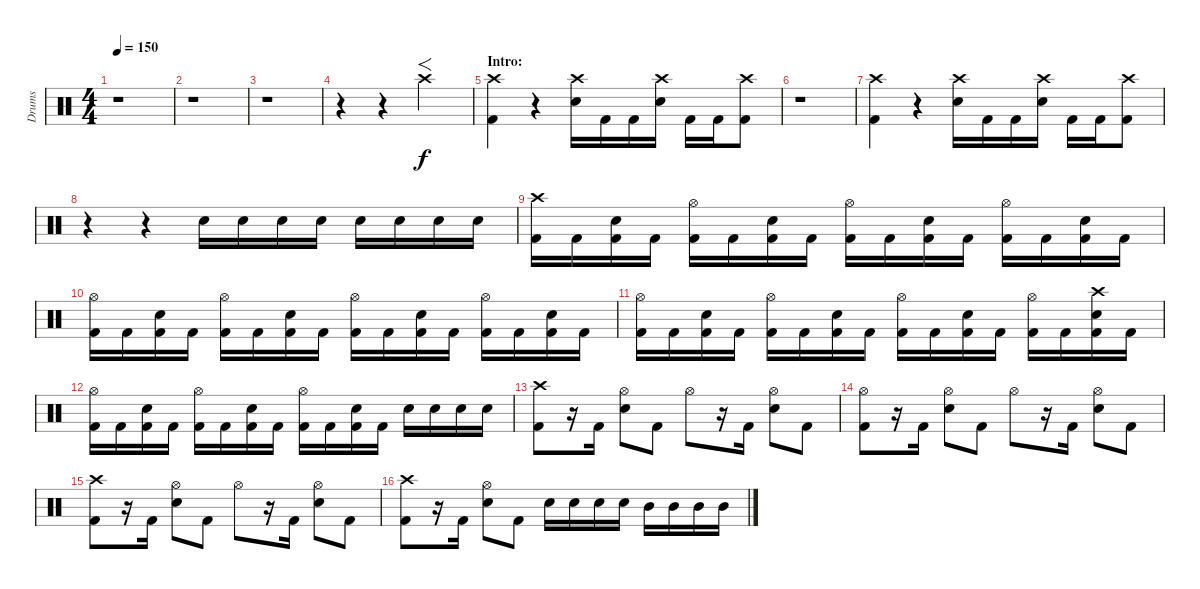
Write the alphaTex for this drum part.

\track ("Drums" "Drums") {instrument percussion}
\staff {score}
\articulation defaults
\ts (4 4)
\tempo 150
\clef neutral
\ks c
r.1{dy f} |
r.1 |
r.1 |
r.4 r.4 "Crash high (hit)".2{f} |
\section ("" "Intro:")
("Crash high (hit)" "Kick (hit) 2").4 r.4 ("Crash high (hit)" "Electric Snare (hit)").16 "Kick (hit) 2".16 "Kick (hit) 2".16 ("Crash high (hit)" "Electric Snare (hit)").16 "Kick (hit) 2".16 "Kick (hit) 2".16 ("Crash high (hit)" "Kick (hit) 2").8 |
r.1 |
("Crash high (hit)" "Kick (hit) 2").4 r.4 ("Crash high (hit)" "Electric Snare (hit)").16 "Kick (hit) 2".16 "Kick (hit) 2".16 ("Crash high (hit)" "Electric Snare (hit)").16 "Kick (hit) 2".16 "Kick (hit) 2".16 ("Crash high (hit)" "Kick (hit) 2").8 |
r.4 r.4 "Electric Snare (hit)".16 "Electric Snare (hit)".16 "Electric Snare (hit)".16 "Electric Snare (hit)".16 "Electric Snare (hit)".16 "Electric Snare (hit)".16 "Electric Snare (hit)".16 "Electric Snare (hit)".16 |
("Crash high (hit)" "Kick (hit) 2").16 "Kick (hit) 2".16 ("Electric Snare (hit)" "Kick (hit) 2").16 "Kick (hit) 2".16 ("Hi-Hat (open)" "Kick (hit) 2").16 "Kick (hit) 2".16 ("Electric Snare (hit)" "Kick (hit) 2").16 "Kick (hit) 2".16 ("Hi-Hat (open)" "Kick (hit) 2").16 "Kick (hit) 2".16 ("Electric Snare (hit)" "Kick (hit) 2").16 "Kick (hit) 2".16 ("Hi-Hat (open)" "Kick (hit) 2").16 "Kick (hit) 2".16 ("Electric Snare (hit)" "Kick (hit) 2").16 "Kick (hit) 2".16 |
("Hi-Hat (open)" "Kick (hit) 2").16 "Kick (hit) 2".16 ("Electric Snare (hit)" "Kick (hit) 2").16 "Kick (hit) 2".16 ("Hi-Hat (open)" "Kick (hit) 2").16 "Kick (hit) 2".16 ("Electric Snare (hit)" "Kick (hit) 2").16 "Kick (hit) 2".16 ("Hi-Hat (open)" "Kick (hit) 2").16 "Kick (hit) 2".16 ("Electric Snare (hit)" "Kick (hit) 2").16 "Kick (hit) 2".16 ("Hi-Hat (open)" "Kick (hit) 2").16 "Kick (hit) 2".16 ("Electric Snare (hit)" "Kick (hit) 2").16 "Kick (hit) 2".16 |
("Hi-Hat (open)" "Kick (hit) 2").16 "Kick (hit) 2".16 ("Electric Snare (hit)" "Kick (hit) 2").16 "Kick (hit) 2".16 ("Hi-Hat (open)" "Kick (hit) 2").16 "Kick (hit) 2".16 ("Electric Snare (hit)" "Kick (hit) 2").16 "Kick (hit) 2".16 ("Hi-Hat (open)" "Kick (hit) 2").16 "Kick (hit) 2".16 ("Electric Snare (hit)" "Kick (hit) 2").16 "Kick (hit) 2".16 ("Hi-Hat (open)" "Kick (hit) 2").16 "Kick (hit) 2".16 ("Crash high (hit)" "Electric Snare (hit)" "Kick (hit) 2").16 "Kick (hit) 2".16 |
("Hi-Hat (open)" "Kick (hit) 2").16 "Kick (hit) 2".16 ("Electric Snare (hit)" "Kick (hit) 2").16 "Kick (hit) 2".16 ("Hi-Hat (open)" "Kick (hit) 2").16 "Kick (hit) 2".16 ("Electric Snare (hit)" "Kick (hit) 2").16 "Kick (hit) 2".16 ("Hi-Hat (open)" "Kick (hit) 2").16 "Kick (hit) 2".16 ("Electric Snare (hit)" "Kick (hit) 2").16 "Kick (hit) 2".16 "Electric Snare (hit)".16 "Electric Snare (hit)".16 "Electric Snare (hit)".16 "Electric Snare (hit)".16 |
("Crash high (hit)" "Kick (hit) 2").8 r.16 "Kick (hit) 2".16 ("Hi-Hat (open)" "Electric Snare (hit)").8 "Kick (hit) 2".8 "Hi-Hat (open)".8 r.16 "Kick (hit) 2".16 ("Hi-Hat (open)" "Electric Snare (hit)").8 "Kick (hit) 2".8 |
("Hi-Hat (open)" "Kick (hit) 2").8 r.16 "Kick (hit) 2".16 ("Hi-Hat (open)" "Electric Snare (hit)").8 "Kick (hit) 2".8 "Hi-Hat (open)".8 r.16 "Kick (hit) 2".16 ("Hi-Hat (open)" "Electric Snare (hit)").8 "Kick (hit) 2".8 |
("Crash high (hit)" "Kick (hit) 2").8 r.16 "Kick (hit) 2".16 ("Hi-Hat (open)" "Electric Snare (hit)").8 "Kick (hit) 2".8 "Hi-Hat (open)".8 r.16 "Kick (hit) 2".16 ("Hi-Hat (open)" "Electric Snare (hit)").8 "Kick (hit) 2".8 |
("Crash high (hit)" "Kick (hit) 2").8 r.16 "Kick (hit) 2".16 ("Hi-Hat (open)" "Electric Snare (hit)").8 "Kick (hit) 2".8 "Electric Snare (hit)".16 "Electric Snare (hit)".16 "Electric Snare (hit)".16 "Electric Snare (hit)".16 "Mid Tom (hit)".16 "Mid Tom (hit)".16 "Mid Tom (hit)".16 "Mid Tom (hit)".16
